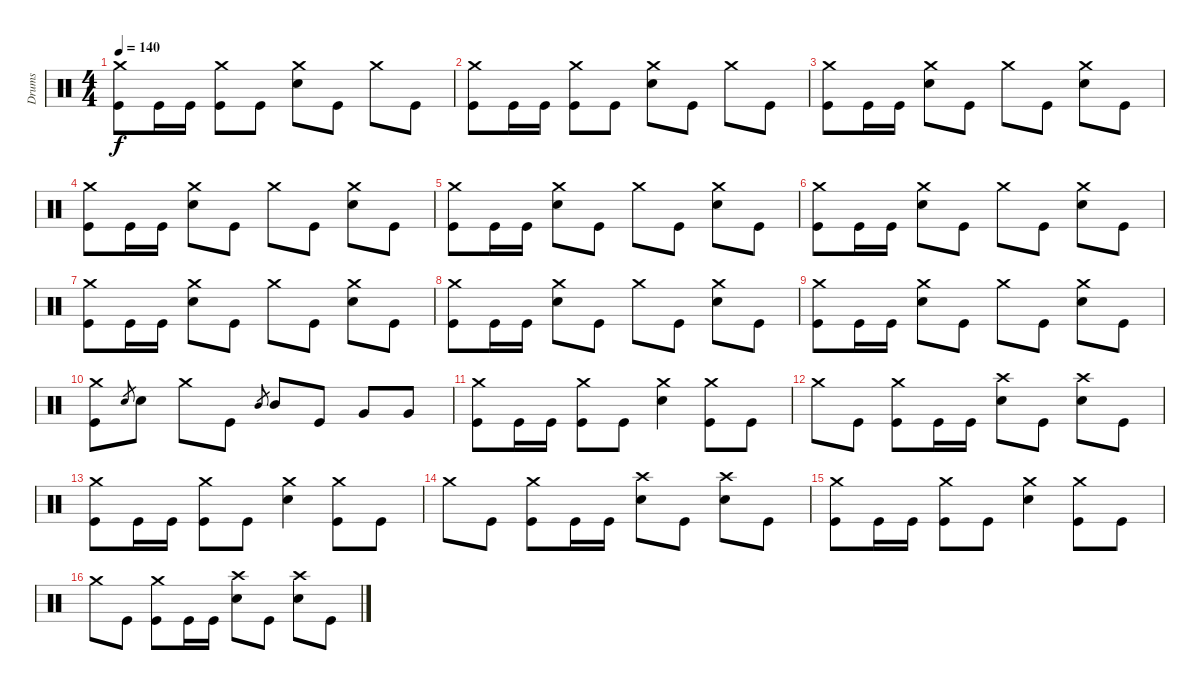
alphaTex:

\track ("Drums" "Drums") {instrument percussion}
\staff {score}
\articulation defaults
\ts (4 4)
\tempo 140
\clef neutral
\ks c
("Crash medium (hit)" "Kick (hit)").8{dy f} "Kick (hit)".16 "Kick (hit)".16 ("Crash medium (hit)" "Kick (hit)").8 "Kick (hit)".8 ("Crash medium (hit)" "Snare (hit) 2").8 "Kick (hit)".8 "Crash medium (hit)".8 "Kick (hit)".8 |
("Crash medium (hit)" "Kick (hit)").8 "Kick (hit)".16 "Kick (hit)".16 ("Crash medium (hit)" "Kick (hit)").8 "Kick (hit)".8 ("Crash medium (hit)" "Snare (hit) 2").8 "Kick (hit)".8 "Crash medium (hit)".8 "Kick (hit)".8 |
("Crash medium (hit)" "Kick (hit)").8 "Kick (hit)".16 "Kick (hit)".16 ("Crash medium (hit)" "Snare (hit) 2").8 "Kick (hit)".8 "Crash medium (hit)".8 "Kick (hit)".8 ("Crash medium (hit)" "Snare (hit) 2").8 "Kick (hit)".8 |
("Crash medium (hit)" "Kick (hit)").8 "Kick (hit)".16 "Kick (hit)".16 ("Crash medium (hit)" "Snare (hit) 2").8 "Kick (hit)".8 "Crash medium (hit)".8 "Kick (hit)".8 ("Crash medium (hit)" "Snare (hit) 2").8 "Kick (hit)".8 |
("Crash medium (hit)" "Kick (hit)").8 "Kick (hit)".16 "Kick (hit)".16 ("Crash medium (hit)" "Snare (hit) 2").8 "Kick (hit)".8 "Crash medium (hit)".8 "Kick (hit)".8 ("Crash medium (hit)" "Snare (hit) 2").8 "Kick (hit)".8 |
("Crash medium (hit)" "Kick (hit)").8 "Kick (hit)".16 "Kick (hit)".16 ("Crash medium (hit)" "Snare (hit) 2").8 "Kick (hit)".8 "Crash medium (hit)".8 "Kick (hit)".8 ("Crash medium (hit)" "Snare (hit) 2").8 "Kick (hit)".8 |
("Crash medium (hit)" "Kick (hit)").8 "Kick (hit)".16 "Kick (hit)".16 ("Crash medium (hit)" "Snare (hit) 2").8 "Kick (hit)".8 "Crash medium (hit)".8 "Kick (hit)".8 ("Crash medium (hit)" "Snare (hit) 2").8 "Kick (hit)".8 |
("Crash medium (hit)" "Kick (hit)").8 "Kick (hit)".16 "Kick (hit)".16 ("Crash medium (hit)" "Snare (hit) 2").8 "Kick (hit)".8 "Crash medium (hit)".8 "Kick (hit)".8 ("Crash medium (hit)" "Snare (hit) 2").8 "Kick (hit)".8 |
("Crash medium (hit)" "Kick (hit)").8 "Kick (hit)".16 "Kick (hit)".16 ("Crash medium (hit)" "Snare (hit) 2").8 "Kick (hit)".8 "Crash medium (hit)".8 "Kick (hit)".8 ("Crash medium (hit)" "Snare (hit) 2").8 "Kick (hit)".8 |
("Crash medium (hit)" "Kick (hit)").8 "Snare (hit) 2".8{gr} "Snare (hit) 2".8 "Crash medium (hit)".8 "Kick (hit)".8 "Mid Tom (hit)".8{gr} "Mid Tom (hit)".8 "Kick (hit)".8 "Very Low Tom (hit)".8 "Very Low Tom (hit)".8 |
("Crash medium (hit)" "Kick (hit)").8 "Kick (hit)".16 "Kick (hit)".16 ("Crash medium (hit)" "Kick (hit)").8 "Kick (hit)".8 ("Crash medium (hit)" "Snare (hit) 2").4 ("Crash medium (hit)" "Kick (hit)").8 "Kick (hit)".8 |
"Crash medium (hit)".8 "Kick (hit)".8 ("Crash medium (hit)" "Kick (hit)").8 "Kick (hit)".16 "Kick (hit)".16 ("Crash high (hit)" "Snare (hit) 2").8 "Kick (hit)".8 ("Crash high (hit)" "Snare (hit) 2").8 "Kick (hit)".8 |
("Crash medium (hit)" "Kick (hit)").8 "Kick (hit)".16 "Kick (hit)".16 ("Crash medium (hit)" "Kick (hit)").8 "Kick (hit)".8 ("Crash medium (hit)" "Snare (hit) 2").4 ("Crash medium (hit)" "Kick (hit)").8 "Kick (hit)".8 |
"Crash medium (hit)".8 "Kick (hit)".8 ("Crash medium (hit)" "Kick (hit)").8 "Kick (hit)".16 "Kick (hit)".16 ("Crash high (hit)" "Snare (hit) 2").8 "Kick (hit)".8 ("Crash high (hit)" "Snare (hit) 2").8 "Kick (hit)".8 |
("Crash medium (hit)" "Kick (hit)").8 "Kick (hit)".16 "Kick (hit)".16 ("Crash medium (hit)" "Kick (hit)").8 "Kick (hit)".8 ("Crash medium (hit)" "Snare (hit) 2").4 ("Crash medium (hit)" "Kick (hit)").8 "Kick (hit)".8 |
"Crash medium (hit)".8 "Kick (hit)".8 ("Crash medium (hit)" "Kick (hit)").8 "Kick (hit)".16 "Kick (hit)".16 ("Crash high (hit)" "Snare (hit) 2").8 "Kick (hit)".8 ("Crash high (hit)" "Snare (hit) 2").8 "Kick (hit)".8
